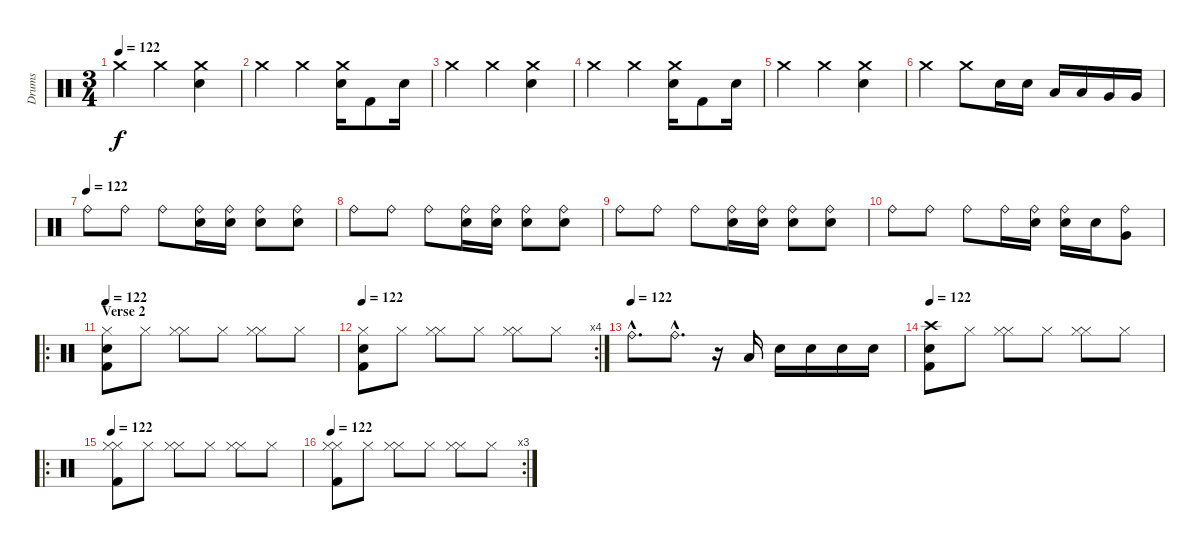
\track ("Drums" "Drums") {instrument percussion}
\staff {score}
\articulation defaults
\ts (3 4)
\tempo 122
\clef neutral
\ks c "Crash medium (hit)".4{dy f} "Crash medium (hit)".4
("Electric Snare (hit)" "Crash medium (hit)").4 |
"Crash medium (hit)".4 "Crash medium (hit)".4 ("Electric Snare (hit)" "Crash medium (hit)").16 "Kick (hit) 2".8 "Electric Snare (hit)".16 |
"Crash medium (hit)".4 "Crash medium (hit)".4 ("Electric Snare (hit)" "Crash medium (hit)").4 |
"Crash medium (hit)".4 "Crash medium (hit)".4 ("Electric Snare (hit)" "Crash medium (hit)").16 "Kick (hit) 2".8 "Electric Snare (hit)".16 |
"Crash medium (hit)".4 "Crash medium (hit)".4 ("Electric Snare (hit)" "Crash medium (hit)").4 |
"Crash medium (hit)".4 "Crash medium (hit)".8 "Electric Snare (hit)".16 "Electric Snare (hit)".16 "Low Tom (hit)".16 "Low Tom (hit)".16 "Very Low Tom (hit)".16 "Very Low Tom (hit)".16 |
\tempo (122)
"Ride (bell)".8 "Ride (bell)".8 "Ride (bell)".8 ("Electric Snare (hit)" "Ride (bell)").16 ("Electric Snare (hit)" "Ride (bell)").16 ("Electric Snare (hit)" "Ride (bell)").8 ("Electric Snare (hit)" "Ride (bell)").8 |
"Ride (bell)".8 "Ride (bell)".8 "Ride (bell)".8 ("Electric Snare (hit)" "Ride (bell)").16 ("Electric Snare (hit)" "Ride (bell)").16 ("Electric Snare (hit)" "Ride (bell)").8 ("Electric Snare (hit)" "Ride (bell)").8 |
"Ride (bell)".8 "Ride (bell)".8 "Ride (bell)".8 ("Electric Snare (hit)" "Ride (bell)").16 ("Electric Snare (hit)" "Ride (bell)").16 ("Electric Snare (hit)" "Ride (bell)").8 ("Electric Snare (hit)" "Ride (bell)").8 |
"Ride (bell)".8 "Ride (bell)".8 "Ride (bell)".8 "Ride (bell)".16 ("Electric Snare (hit)" "Ride (bell)").16 ("Electric Snare (hit)" "Ride (bell)").16 "Electric Snare (hit)".16 ("Very Low Tom (hit)" "Ride (bell)").8 |
\ro
\section ("" "Verse 2")
\tempo 122
("Electric Snare (hit)" "Kick (hit) 2" "Hi-Hat (closed)").8 "Hi-Hat (closed)".8 ("Hi-Hat (closed)" "Hi-Hat (closed)").8 "Hi-Hat (closed)".8 ("Hi-Hat (closed)" "Hi-Hat (closed)").8 "Hi-Hat (closed)".8 |
\rc 4
\tempo 122
("Electric Snare (hit)" "Kick (hit) 2" "Hi-Hat (closed)").8 "Hi-Hat (closed)".8 ("Hi-Hat (closed)" "Hi-Hat (closed)").8 "Hi-Hat (closed)".8 ("Hi-Hat (closed)" "Hi-Hat (closed)").8 "Hi-Hat (closed)".8 |
\tempo (122)
"Ride (bell)"{hac}.8{d} "Ride (bell)"{hac}.8{d} r.16 "Low Tom (hit)".16 "Electric Snare (hit)".16 "Electric Snare (hit)".16 "Electric Snare (hit)".16 "Electric Snare (hit)".16 |
\tempo 122
("Electric Snare (hit)" "Kick (hit) 2" "Crash high (hit)").8 "Hi-Hat (closed)".8 ("Hi-Hat (closed)" "Hi-Hat (closed)").8 "Hi-Hat (closed)".8 ("Hi-Hat (closed)" "Hi-Hat (closed)").8 "Hi-Hat (closed)".8 |
\ro
\tempo 122
("Hi-Hat (closed)" "Kick (hit) 2" "Hi-Hat (closed)").8 "Hi-Hat (closed)".8 ("Hi-Hat (closed)" "Hi-Hat (closed)").8 "Hi-Hat (closed)".8 ("Hi-Hat (closed)" "Hi-Hat (closed)").8 "Hi-Hat (closed)".8 |
\rc 3
\tempo 122
("Hi-Hat (closed)" "Kick (hit) 2" "Hi-Hat (closed)").8 "Hi-Hat (closed)".8 ("Hi-Hat (closed)" "Hi-Hat (closed)").8 "Hi-Hat (closed)".8 ("Hi-Hat (closed)" "Hi-Hat (closed)").8 "Hi-Hat (closed)".8
